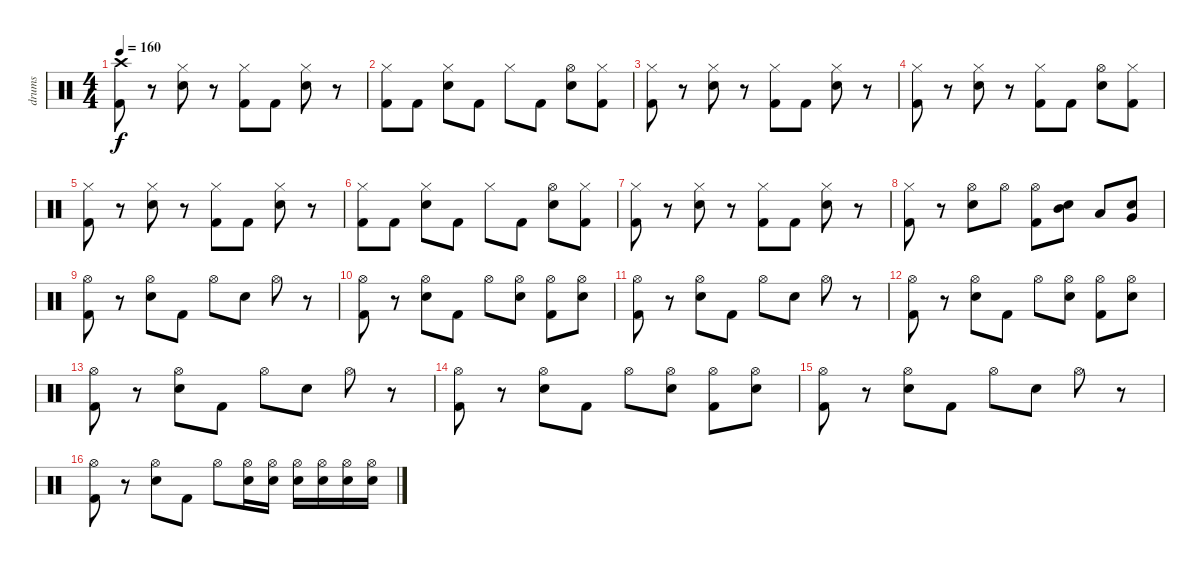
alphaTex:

\track ("drums" "drums") {instrument percussion}
\staff {score}
\articulation defaults
\ts (4 4)
\tempo 160
\clef neutral
\ks c
("Crash high (hit)" "Kick (hit) 2").8{dy f} r.8 ("Hi-Hat (closed)" "Electric Snare (hit)").8 r.8 ("Hi-Hat (closed)" "Kick (hit) 2").8 "Kick (hit) 2".8 ("Hi-Hat (closed)" "Electric Snare (hit)").8 r.8 |
("Hi-Hat (closed)" "Kick (hit) 2").8 "Kick (hit) 2".8 ("Hi-Hat (closed)" "Electric Snare (hit)").8 "Kick (hit) 2".8 "Hi-Hat (closed)".8 "Kick (hit) 2".8 ("Hi-Hat (open)" "Electric Snare (hit)").8 ("Hi-Hat (closed)" "Kick (hit) 2").8 |
("Hi-Hat (closed)" "Kick (hit) 2").8 r.8 ("Hi-Hat (closed)" "Electric Snare (hit)").8 r.8 ("Hi-Hat (closed)" "Kick (hit) 2").8 "Kick (hit) 2".8 ("Hi-Hat (closed)" "Electric Snare (hit)").8 r.8 |
("Hi-Hat (closed)" "Kick (hit) 2").8 r.8 ("Hi-Hat (closed)" "Electric Snare (hit)").8 r.8 ("Hi-Hat (closed)" "Kick (hit) 2").8 "Kick (hit) 2".8 ("Hi-Hat (open)" "Electric Snare (hit)").8 ("Hi-Hat (closed)" "Kick (hit) 2").8 |
("Hi-Hat (closed)" "Kick (hit) 2").8 r.8 ("Hi-Hat (closed)" "Electric Snare (hit)").8 r.8 ("Hi-Hat (closed)" "Kick (hit) 2").8 "Kick (hit) 2".8 ("Hi-Hat (closed)" "Electric Snare (hit)").8 r.8 |
("Hi-Hat (closed)" "Kick (hit) 2").8 "Kick (hit) 2".8 ("Hi-Hat (closed)" "Electric Snare (hit)").8 "Kick (hit) 2".8 "Hi-Hat (closed)".8 "Kick (hit) 2".8 ("Hi-Hat (open)" "Electric Snare (hit)").8 ("Hi-Hat (closed)" "Kick (hit) 2").8 |
("Hi-Hat (closed)" "Kick (hit) 2").8 r.8 ("Hi-Hat (closed)" "Electric Snare (hit)").8 r.8 ("Hi-Hat (closed)" "Kick (hit) 2").8 "Kick (hit) 2".8 ("Hi-Hat (closed)" "Electric Snare (hit)").8 r.8 |
("Hi-Hat (closed)" "Kick (hit) 2").8 r.8 ("Hi-Hat (open)" "Electric Snare (hit)").8 "Hi-Hat (open)".8 ("Hi-Hat (open)" "Kick (hit) 2").8 ("Mid Tom (hit)" "Electric Snare (hit)").8 "Low Tom (hit)".8 ("Very Low Tom (hit)" "Electric Snare (hit)").8 |
("Hi-Hat (open)" "Kick (hit) 2").8 r.8 ("Hi-Hat (open)" "Electric Snare (hit)").8 "Kick (hit) 2".8 "Hi-Hat (open)".8 "Electric Snare (hit)".8 "Hi-Hat (open)".8 r.8 |
("Hi-Hat (open)" "Kick (hit) 2").8 r.8 ("Hi-Hat (open)" "Electric Snare (hit)").8 "Kick (hit) 2".8 "Hi-Hat (open)".8 ("Hi-Hat (open)" "Electric Snare (hit)").8 ("Hi-Hat (open)" "Kick (hit) 2").8 ("Hi-Hat (open)" "Electric Snare (hit)").8 |
("Hi-Hat (open)" "Kick (hit) 2").8 r.8 ("Hi-Hat (open)" "Electric Snare (hit)").8 "Kick (hit) 2".8 "Hi-Hat (open)".8 "Electric Snare (hit)".8 "Hi-Hat (open)".8 r.8 |
("Hi-Hat (open)" "Kick (hit) 2").8 r.8 ("Hi-Hat (open)" "Electric Snare (hit)").8 "Kick (hit) 2".8 "Hi-Hat (open)".8 ("Hi-Hat (open)" "Electric Snare (hit)").8 ("Hi-Hat (open)" "Kick (hit) 2").8 ("Hi-Hat (open)" "Electric Snare (hit)").8 |
("Hi-Hat (open)" "Kick (hit) 2").8 r.8 ("Hi-Hat (open)" "Electric Snare (hit)").8 "Kick (hit) 2".8 "Hi-Hat (open)".8 "Electric Snare (hit)".8 "Hi-Hat (open)".8 r.8 |
("Hi-Hat (open)" "Kick (hit) 2").8 r.8 ("Hi-Hat (open)" "Electric Snare (hit)").8 "Kick (hit) 2".8 "Hi-Hat (open)".8 ("Hi-Hat (open)" "Electric Snare (hit)").8 ("Hi-Hat (open)" "Kick (hit) 2").8 ("Hi-Hat (open)" "Electric Snare (hit)").8 |
("Hi-Hat (open)" "Kick (hit) 2").8 r.8 ("Hi-Hat (open)" "Electric Snare (hit)").8 "Kick (hit) 2".8 "Hi-Hat (open)".8 "Electric Snare (hit)".8 "Hi-Hat (open)".8 r.8 |
("Hi-Hat (open)" "Kick (hit) 2").8 r.8 ("Hi-Hat (open)" "Electric Snare (hit)").8 "Kick (hit) 2".8 "Hi-Hat (open)".8 ("Hi-Hat (open)" "Electric Snare (hit)").16 ("Hi-Hat (open)" "Electric Snare (hit)").16 ("Hi-Hat (open)" "Electric Snare (hit)").16 ("Hi-Hat (open)" "Electric Snare (hit)").16 ("Hi-Hat (open)" "Electric Snare (hit)").16 ("Hi-Hat (open)" "Electric Snare (hit)").16
